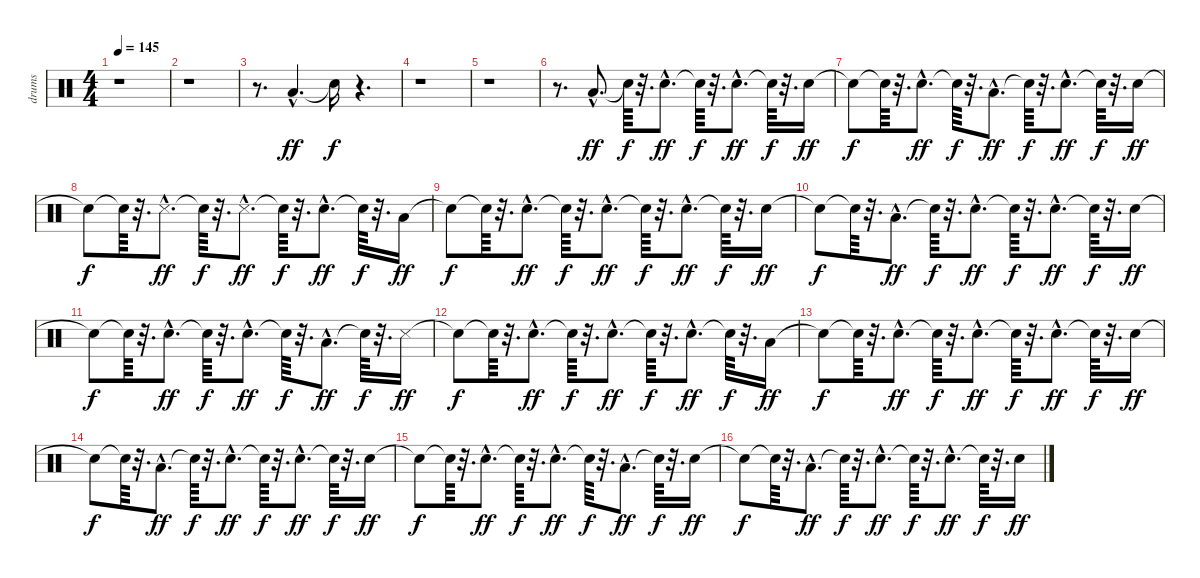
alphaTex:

\track ("drums" "drums") {instrument percussion}
\staff {score}
\articulation defaults
\ts (4 4)
\tempo 145
\clef neutral
\ks c
r.1{dy f} |
r.1 |
r.8{d} "Low Tom (hit)"{hac}.4{d dy ff} "Snare (hit)"{t}.16{dy f} r.4{d} |
r.1 |
r.1 |
r.8{d} "Low Tom (hit)"{hac}.8{d dy ff} "Snare (hit)"{t}.64{dy f} r.32{d} "Metronome (bell)"{hac}.8{d dy ff} "Snare (hit)"{t}.64{dy f} r.32{d} "Metronome (bell)"{hac}.8{d dy ff} "Snare (hit)"{t}.64{dy f} r.32{d} "Metronome (bell)".16{dy ff} |
"Snare (hit)"{t}.8{dy f} "Snare (hit)"{t}.64 r.32{d} "Metronome (bell)"{hac}.8{d dy ff} "Snare (hit)"{t}.64{dy f} r.32{d} "Low Tom (hit)"{hac}.8{d dy ff} "Snare (hit)"{t}.64{dy f} r.32{d} "Metronome (bell)"{hac}.8{d dy ff} "Snare (hit)"{t}.64{dy f} r.32{d} "Metronome (bell)".16{dy ff} |
"Snare (hit)"{t}.8{dy f} "Snare (hit)"{t}.64 r.32{d} "Metronome (hit)"{hac}.8{d dy ff} "Snare (hit)"{t}.64{dy f} r.32{d} "Metronome (hit)"{hac}.8{d dy ff} "Snare (hit)"{t}.64{dy f} r.32{d} "Metronome (bell)"{hac}.8{d dy ff} "Snare (hit)"{t}.64{dy f} r.32{d} "Low Tom (hit)".16{dy ff} |
"Snare (hit)"{t}.8{dy f} "Snare (hit)"{t}.64 r.32{d} "Metronome (bell)"{hac}.8{d dy ff} "Snare (hit)"{t}.64{dy f} r.32{d} "Metronome (bell)"{hac}.8{d dy ff} "Snare (hit)"{t}.64{dy f} r.32{d} "Metronome (bell)"{hac}.8{d dy ff} "Snare (hit)"{t}.64{dy f} r.32{d} "Metronome (bell)".16{dy ff} |
"Snare (hit)"{t}.8{dy f} "Snare (hit)"{t}.64 r.32{d} "Low Tom (hit)"{hac}.8{d dy ff} "Snare (hit)"{t}.64{dy f} r.32{d} "Metronome (bell)"{hac}.8{d dy ff} "Snare (hit)"{t}.64{dy f} r.32{d} "Metronome (bell)"{hac}.8{d dy ff} "Snare (hit)"{t}.64{dy f} r.32{d} "Metronome (bell)".16{dy ff} |
"Snare (hit)"{t}.8{dy f} "Snare (hit)"{t}.64 r.32{d} "Metronome (bell)"{hac}.8{d dy ff} "Snare (hit)"{t}.64{dy f} r.32{d} "Metronome (bell)"{hac}.8{d dy ff} "Snare (hit)"{t}.64{dy f} r.32{d} "Low Tom (hit)"{hac}.8{d dy ff} "Snare (hit)"{t}.64{dy f} r.32{d} "Metronome (hit)".16{dy ff} |
"Snare (hit)"{t}.8{dy f} "Snare (hit)"{t}.64 r.32{d} "Metronome (bell)"{hac}.8{d dy ff} "Snare (hit)"{t}.64{dy f} r.32{d} "Metronome (bell)"{hac}.8{d dy ff} "Snare (hit)"{t}.64{dy f} r.32{d} "Metronome (bell)"{hac}.8{d dy ff} "Snare (hit)"{t}.64{dy f} r.32{d} "Low Tom (hit)".16{dy ff} |
"Snare (hit)"{t}.8{dy f} "Snare (hit)"{t}.64 r.32{d} "Metronome (bell)"{hac}.8{d dy ff} "Snare (hit)"{t}.64{dy f} r.32{d} "Metronome (bell)"{hac}.8{d dy ff} "Snare (hit)"{t}.64{dy f} r.32{d} "Metronome (bell)"{hac}.8{d dy ff} "Snare (hit)"{t}.64{dy f} r.32{d} "Metronome (bell)".16{dy ff} |
"Snare (hit)"{t}.8{dy f} "Snare (hit)"{t}.64 r.32{d} "Low Tom (hit)"{hac}.8{d dy ff} "Snare (hit)"{t}.64{dy f} r.32{d} "Metronome (bell)"{hac}.8{d dy ff} "Snare (hit)"{t}.64{dy f} r.32{d} "Metronome (bell)"{hac}.8{d dy ff} "Snare (hit)"{t}.64{dy f} r.32{d} "Metronome (bell)".16{dy ff} |
"Snare (hit)"{t}.8{dy f} "Snare (hit)"{t}.64 r.32{d} "Metronome (bell)"{hac}.8{d dy ff} "Snare (hit)"{t}.64{dy f} r.32{d} "Metronome (bell)"{hac}.8{d dy ff} "Snare (hit)"{t}.64{dy f} r.32{d} "Low Tom (hit)"{hac}.8{d dy ff} "Snare (hit)"{t}.64{dy f} r.32{d} "Metronome (bell)".16{dy ff} |
"Snare (hit)"{t}.8{dy f} "Snare (hit)"{t}.64 r.32{d} "Low Tom (hit)"{hac}.8{d dy ff} "Snare (hit)"{t}.64{dy f} r.32{d} "Metronome (bell)"{hac}.8{d dy ff} "Snare (hit)"{t}.64{dy f} r.32{d} "Metronome (bell)"{hac}.8{d dy ff} "Snare (hit)"{t}.64{dy f} r.32{d} "Metronome (bell)".16{dy ff}
